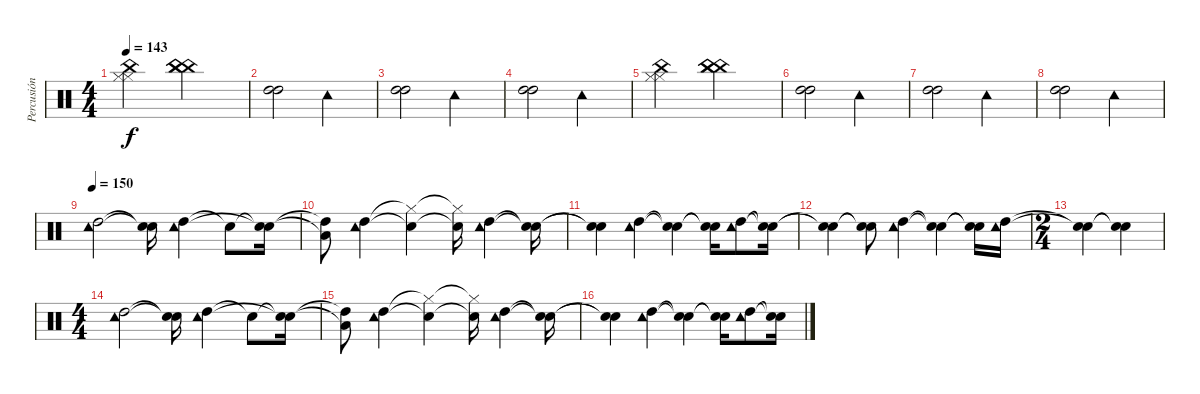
\track ("Percusión" "Percusión") {instrument percussion}
\staff {score}
\articulation defaults
\ts (4 4)
\tempo 143
\clef neutral
\ks c
("Hi-Hat (closed)" "Hi-Hat (closed)" "China (hit)").2{dy f} ("China (hit)" "China (hit)" "China (hit)").2 |
("High Tom (hit)" "High Tom (hit)").2 "Tambourine (hit)".2 |
("High Tom (hit)" "High Tom (hit)").2 "Tambourine (hit)".2 |
("High Tom (hit)" "High Tom (hit)").2 "Tambourine (hit)".2 |
("Hi-Hat (closed)" "Hi-Hat (closed)" "China (hit)").2 ("China (hit)" "China (hit)" "China (hit)").2 |
("High Tom (hit)" "High Tom (hit)").2 "Tambourine (hit)".2 |
("High Tom (hit)" "High Tom (hit)").2 "Tambourine (hit)".2 |
("High Tom (hit)" "High Tom (hit)").2 "Tambourine (hit)".2 |
\tempo 150
("High Tom (hit)" "Tambourine (hit)").2 ("Snare (hit)"{t} "Snare (hit)"{t}).16 ("High Tom (hit)" "Tambourine (hit)").4 "Snare (hit)"{t}.8 ("Snare (hit)"{t} "Snare (hit)"{t}).16 |
("High Tom (hit)"{t} "Low Floor Tom (hit)"{t}).8 ("High Tom (hit)" "Tambourine (hit)").4 ("Hi-Hat (closed)"{t} "Snare (hit)"{t}).4 ("Hi-Hat (closed)"{t} "Snare (hit)"{t}).16 ("High Tom (hit)" "Tambourine (hit)").4 ("Snare (hit)"{t} "Snare (hit)"{t}).16 |
("Snare (hit)"{t} "Snare (hit)"{t}).4 ("High Tom (hit)" "Tambourine (hit)").4 ("Snare (hit)"{t} "Snare (hit)"{t}).4 ("Snare (hit)"{t} "Snare (hit)"{t}).16 ("High Tom (hit)" "Tambourine (hit)").8 ("Snare (hit)"{t} "Snare (hit)"{t}).16 |
("Snare (hit)"{t} "Snare (hit)"{t}).4 ("Snare (hit)"{t} "Snare (hit)"{t}).8 ("High Tom (hit)" "Tambourine (hit)").4 ("Snare (hit)"{t} "Snare (hit)"{t}).4 ("Snare (hit)"{t} "Snare (hit)"{t}).16 ("High Tom (hit)" "Tambourine (hit)").16 |
\ts (2 4)
("Snare (hit)"{t} "Snare (hit)"{t}).4 ("Snare (hit)"{t} "Snare (hit)"{t}).4 |
\ts (4 4)
("High Tom (hit)" "Tambourine (hit)").2 ("Snare (hit)"{t} "Snare (hit)"{t}).16 ("High Tom (hit)" "Tambourine (hit)").4 "Snare (hit)"{t}.8 ("Snare (hit)"{t} "Snare (hit)"{t}).16 |
("High Tom (hit)"{t} "Low Floor Tom (hit)"{t}).8 ("High Tom (hit)" "Tambourine (hit)").4 ("Hi-Hat (closed)"{t} "Snare (hit)"{t}).4 ("Hi-Hat (closed)"{t} "Snare (hit)"{t}).16 ("High Tom (hit)" "Tambourine (hit)").4 ("Snare (hit)"{t} "Snare (hit)"{t}).16 |
("Snare (hit)"{t} "Snare (hit)"{t}).4 ("High Tom (hit)" "Tambourine (hit)").4 ("Snare (hit)"{t} "Snare (hit)"{t}).4 ("Snare (hit)"{t} "Snare (hit)"{t}).16 ("High Tom (hit)" "Tambourine (hit)").8 ("Snare (hit)"{t} "Snare (hit)"{t}).16
